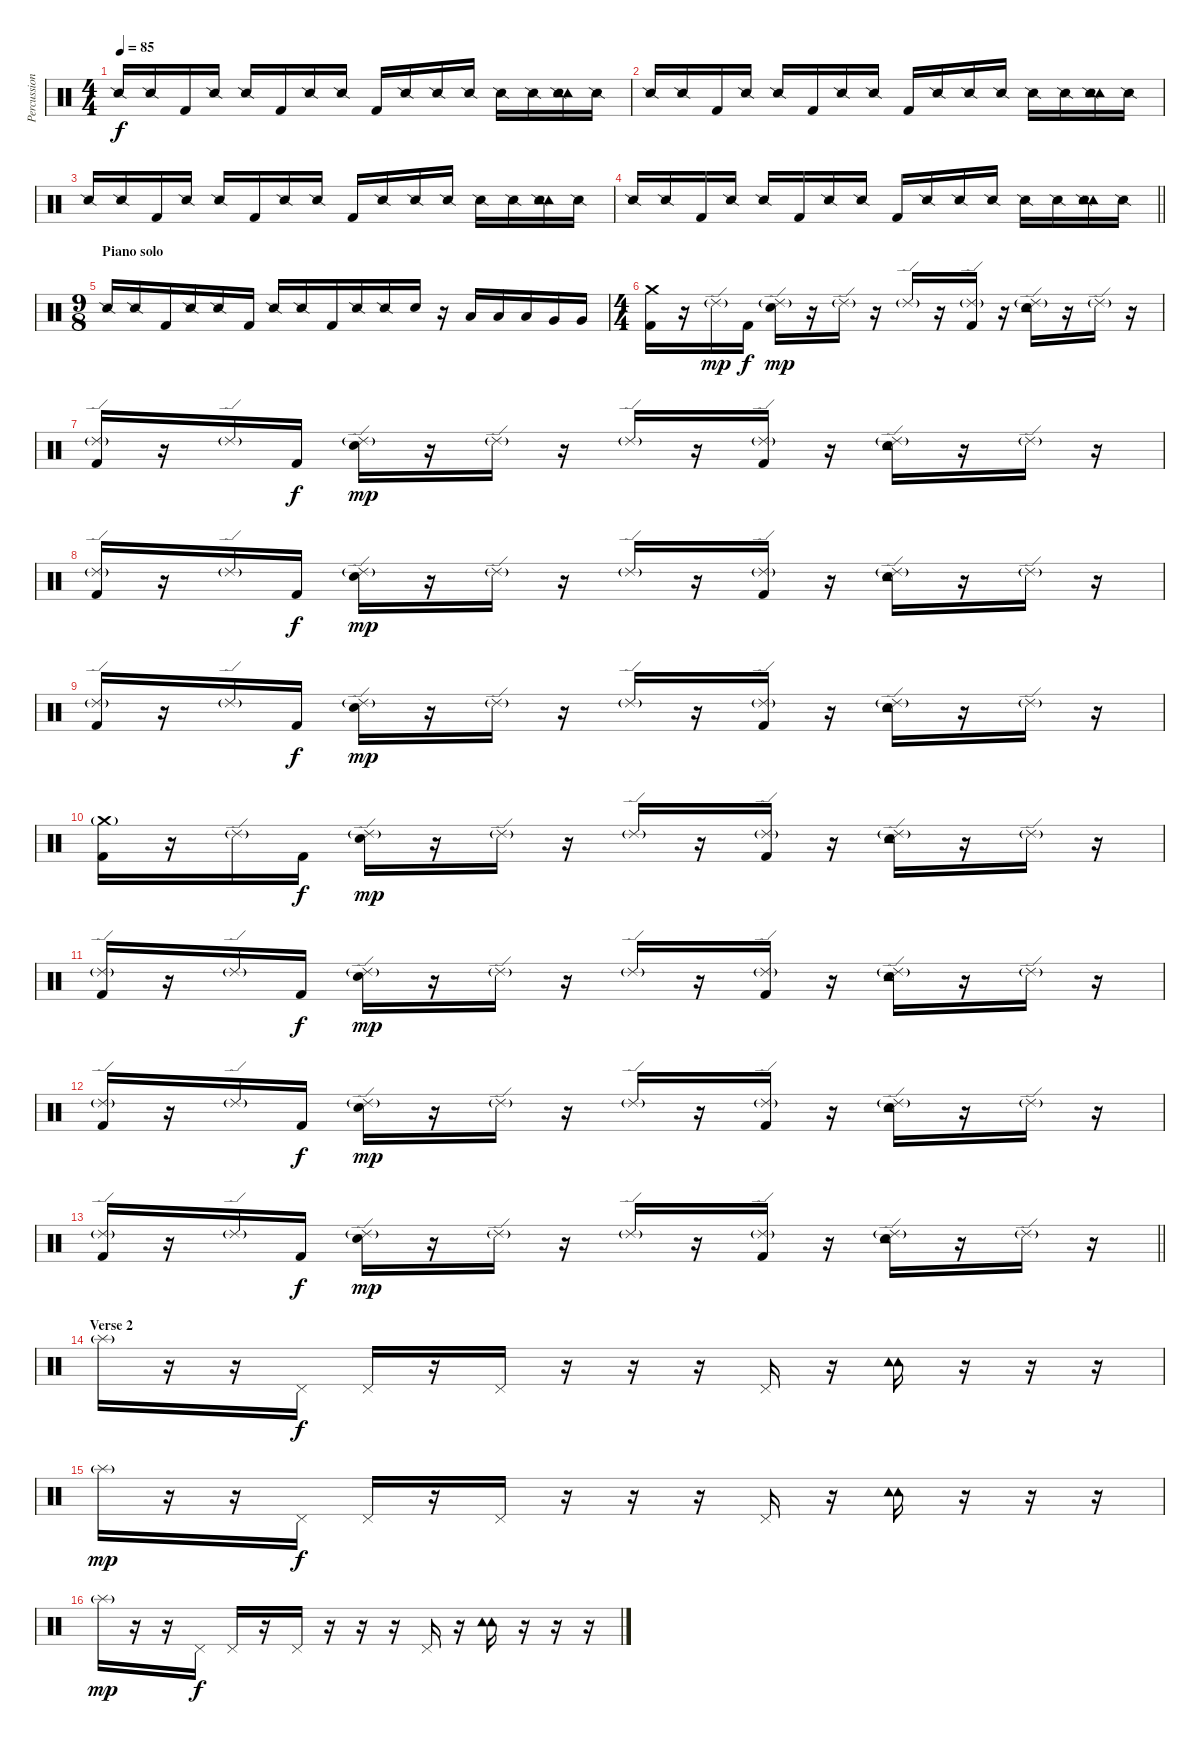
\track ("Percussion" "Percussion") {instrument percussion}
\staff {score}
\articulation defaults
\ts (4 4)
\tempo 85
\clef neutral
\ks c "Snare (side stick) 2".16{dy f} "Snare (side stick) 2".16 "Kick (hit) 2".16 "Snare (side stick) 2".16 "Snare (side stick) 2".16 "Kick (hit) 2".16 "Snare (side stick) 2".16 "Snare (side stick) 2".16 "Kick (hit) 2".16 "Snare (side stick) 2".16 "Snare (side stick) 2".16 "Snare (side stick) 2".16 "Snare (side stick) 2".16 "Snare (side stick) 2".16
("Tambourine (hit)" "Tambourine (hit)" "Snare (side stick) 2").16 "Snare (side stick) 2".16 |
"Snare (side stick) 2".16 "Snare (side stick) 2".16 "Kick (hit) 2".16 "Snare (side stick) 2".16 "Snare (side stick) 2".16 "Kick (hit) 2".16 "Snare (side stick) 2".16 "Snare (side stick) 2".16 "Kick (hit) 2".16 "Snare (side stick) 2".16 "Snare (side stick) 2".16 "Snare (side stick) 2".16 "Snare (side stick) 2".16 "Snare (side stick) 2".16 ("Tambourine (hit)" "Tambourine (hit)" "Snare (side stick) 2").16 "Snare (side stick) 2".16 |
"Snare (side stick) 2".16 "Snare (side stick) 2".16 "Kick (hit) 2".16 "Snare (side stick) 2".16 "Snare (side stick) 2".16 "Kick (hit) 2".16 "Snare (side stick) 2".16 "Snare (side stick) 2".16 "Kick (hit) 2".16 "Snare (side stick) 2".16 "Snare (side stick) 2".16 "Snare (side stick) 2".16 "Snare (side stick) 2".16 "Snare (side stick) 2".16 ("Tambourine (hit)" "Tambourine (hit)" "Snare (side stick) 2").16 "Snare (side stick) 2".16 |
\barLineRight lightlight "Snare (side stick) 2".16 "Snare (side stick) 2".16 "Kick (hit) 2".16 "Snare (side stick) 2".16 "Snare (side stick) 2".16 "Kick (hit) 2".16 "Snare (side stick) 2".16 "Snare (side stick) 2".16 "Kick (hit) 2".16 "Snare (side stick) 2".16 "Snare (side stick) 2".16 "Snare (side stick) 2".16 "Snare (side stick) 2".16 "Snare (side stick) 2".16
("Tambourine (hit)" "Tambourine (hit)" "Snare (side stick) 2").16 "Snare (side stick) 2".16 |
\ts (9 8)
\section ("" "Piano solo")
"Snare (side stick) 2".16 "Snare (side stick) 2".16 "Kick (hit) 2".16 "Snare (side stick) 2".16 "Snare (side stick) 2".16 "Kick (hit) 2".16 "Snare (side stick) 2".16 "Snare (side stick) 2".16 "Kick (hit) 2".16 "Snare (side stick) 2".16 "Snare (side stick) 2".16 "Electric Snare (hit)".16{volume 16} r.16 "Low Tom (hit)".16 "Low Tom (hit)".16 "Low Tom (hit)".16 "Very Low Tom (hit)".16 "Very Low Tom (hit)".16 |
\ts (4 4)
("Crash medium (hit)" "Kick (hit) 2").16 r.16 "Ride (edge) 2"{g}.16{dy mp} "Kick (hit) 2".16{dy f} ("Ride (edge) 2"{g} "Electric Snare (hit)").16{dy mp} r.16 "Ride (edge) 2"{g}.16 r.16 "Ride (edge) 2"{g}.16 r.16 ("Ride (edge) 2"{g} "Kick (hit) 2").16 r.16 ("Tambourine (hit)" "Ride (edge) 2"{g} "Electric Snare (hit)").16 r.16 "Ride (edge) 2"{g}.16 r.16 |
("Ride (edge) 2"{g} "Kick (hit) 2").16 r.16 "Ride (edge) 2"{g}.16 "Kick (hit) 2".16{dy f} ("Ride (edge) 2"{g} "Electric Snare (hit)").16{dy mp} r.16 "Ride (edge) 2"{g}.16 r.16 "Ride (edge) 2"{g}.16 r.16 ("Ride (edge) 2"{g} "Kick (hit) 2").16 r.16 ("Tambourine (hit)" "Ride (edge) 2"{g} "Electric Snare (hit)").16 r.16 "Ride (edge) 2"{g}.16 r.16 |
("Ride (edge) 2"{g} "Kick (hit) 2").16 r.16 "Ride (edge) 2"{g}.16 "Kick (hit) 2".16{dy f} ("Ride (edge) 2"{g} "Electric Snare (hit)").16{dy mp} r.16 "Ride (edge) 2"{g}.16 r.16 "Ride (edge) 2"{g}.16 r.16 ("Ride (edge) 2"{g} "Kick (hit) 2").16 r.16 ("Tambourine (hit)" "Ride (edge) 2"{g} "Electric Snare (hit)").16 r.16 "Ride (edge) 2"{g}.16 r.16 |
("Ride (edge) 2"{g} "Kick (hit) 2").16 r.16 "Ride (edge) 2"{g}.16 "Kick (hit) 2".16{dy f} ("Ride (edge) 2"{g} "Electric Snare (hit)").16{dy mp} r.16 "Ride (edge) 2"{g}.16 r.16 "Ride (edge) 2"{g}.16 r.16 ("Ride (edge) 2"{g} "Kick (hit) 2").16 r.16 ("Tambourine (hit)" "Ride (edge) 2"{g} "Electric Snare (hit)").16 r.16 "Ride (edge) 2"{g}.16 r.16 |
("Crash medium (hit)"{g} "Kick (hit) 2").16 r.16 "Ride (edge) 2"{g}.16 "Kick (hit) 2".16{dy f} ("Ride (edge) 2"{g} "Electric Snare (hit)").16{dy mp} r.16 "Ride (edge) 2"{g}.16 r.16 "Ride (edge) 2"{g}.16 r.16 ("Ride (edge) 2"{g} "Kick (hit) 2").16 r.16 ("Tambourine (hit)" "Ride (edge) 2"{g} "Electric Snare (hit)").16 r.16 "Ride (edge) 2"{g}.16 r.16 |
("Ride (edge) 2"{g} "Kick (hit) 2").16 r.16 "Ride (edge) 2"{g}.16 "Kick (hit) 2".16{dy f} ("Ride (edge) 2"{g} "Electric Snare (hit)").16{dy mp} r.16 "Ride (edge) 2"{g}.16 r.16 "Ride (edge) 2"{g}.16 r.16 ("Ride (edge) 2"{g} "Kick (hit) 2").16 r.16 ("Tambourine (hit)" "Ride (edge) 2"{g} "Electric Snare (hit)").16 r.16 "Ride (edge) 2"{g}.16 r.16 |
("Ride (edge) 2"{g} "Kick (hit) 2").16 r.16 "Ride (edge) 2"{g}.16 "Kick (hit) 2".16{dy f} ("Ride (edge) 2"{g} "Electric Snare (hit)").16{dy mp} r.16 "Ride (edge) 2"{g}.16 r.16 "Ride (edge) 2"{g}.16 r.16 ("Ride (edge) 2"{g} "Kick (hit) 2").16 r.16 ("Tambourine (hit)" "Ride (edge) 2"{g} "Electric Snare (hit)").16 r.16 "Ride (edge) 2"{g}.16 r.16 |
\barLineRight lightlight
("Ride (edge) 2"{g} "Kick (hit) 2").16 r.16 "Ride (edge) 2"{g}.16 "Kick (hit) 2".16{dy f} ("Ride (edge) 2"{g} "Electric Snare (hit)").16{dy mp} r.16 "Ride (edge) 2"{g}.16 r.16 "Ride (edge) 2"{g}.16 r.16 ("Ride (edge) 2"{g} "Kick (hit) 2").16 r.16 ("Tambourine (hit)" "Ride (edge) 2"{g} "Electric Snare (hit)").16 r.16 "Ride (edge) 2"{g}.16 r.16 |
\section ("" "Verse 2")
"Splash (hit)"{g}.16 r.16 r.16 "Pedal Hi-Hat (hit)".16{dy f} "Pedal Hi-Hat (hit)".16 r.16 "Pedal Hi-Hat (hit)".16 r.16 r.16 r.16 "Pedal Hi-Hat (hit)".16 r.16 ("Tambourine (hit)" "Tambourine (hit)").16 r.16 r.16 r.16 |
"Splash (hit)"{g}.16{dy mp} r.16 r.16 "Pedal Hi-Hat (hit)".16{dy f} "Pedal Hi-Hat (hit)".16 r.16 "Pedal Hi-Hat (hit)".16 r.16 r.16 r.16 "Pedal Hi-Hat (hit)".16 r.16 ("Tambourine (hit)" "Tambourine (hit)").16 r.16 r.16 r.16 |
"Splash (hit)"{g}.16{dy mp} r.16 r.16 "Pedal Hi-Hat (hit)".16{dy f} "Pedal Hi-Hat (hit)".16 r.16 "Pedal Hi-Hat (hit)".16 r.16 r.16 r.16 "Pedal Hi-Hat (hit)".16 r.16 ("Tambourine (hit)" "Tambourine (hit)").16 r.16 r.16 r.16
